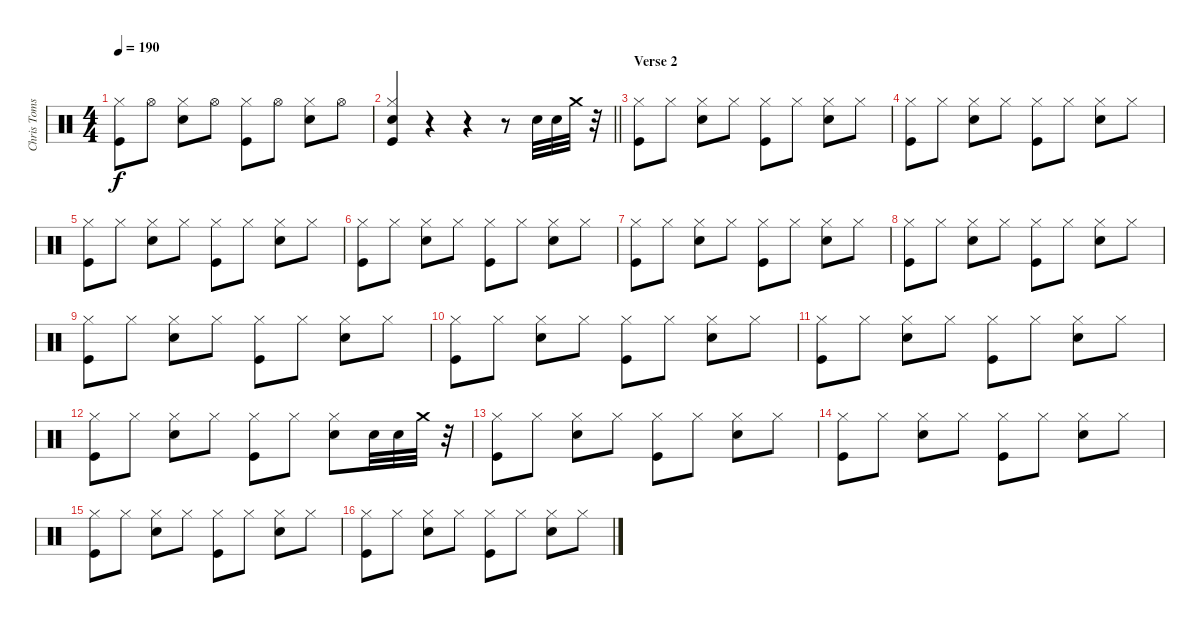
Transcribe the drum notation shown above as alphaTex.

\track ("Chris Tomson - Drums" "Chris Toms") {instrument percussion}
\staff {score}
\articulation defaults
\ts (4 4)
\tempo 190
\clef neutral
\ks c
("Kick (hit)" "Hi-Hat (closed)").8{dy f} "Hi-Hat (open)".8 ("Snare (hit) 2" "Hi-Hat (closed)").8 "Hi-Hat (open)".8 ("Kick (hit)" "Hi-Hat (closed)").8 "Hi-Hat (open)".8 ("Snare (hit) 2" "Hi-Hat (closed)").8 "Hi-Hat (open)".8 |
\barLineRight lightlight
("Kick (hit)" "Snare (hit) 2" "Hi-Hat (closed)").4 r.4 r.4 r.8 "Snare (hit) 2".32 "Snare (hit) 2".32 "Crash medium (hit)".32 r.32 |
\section ("" "Verse 2")
("Kick (hit)" "Hi-Hat (closed)").8 "Hi-Hat (closed)".8 ("Snare (hit) 2" "Hi-Hat (closed)").8 "Hi-Hat (closed)".8 ("Kick (hit)" "Hi-Hat (closed)").8 "Hi-Hat (closed)".8 ("Snare (hit) 2" "Hi-Hat (closed)").8 "Hi-Hat (closed)".8 |
("Kick (hit)" "Hi-Hat (closed)").8 "Hi-Hat (closed)".8 ("Snare (hit) 2" "Hi-Hat (closed)").8 "Hi-Hat (closed)".8 ("Kick (hit)" "Hi-Hat (closed)").8 "Hi-Hat (closed)".8 ("Snare (hit) 2" "Hi-Hat (closed)").8 "Hi-Hat (closed)".8 |
("Kick (hit)" "Hi-Hat (closed)").8 "Hi-Hat (closed)".8 ("Snare (hit) 2" "Hi-Hat (closed)").8 "Hi-Hat (closed)".8 ("Kick (hit)" "Hi-Hat (closed)").8 "Hi-Hat (closed)".8 ("Snare (hit) 2" "Hi-Hat (closed)").8 "Hi-Hat (closed)".8 |
("Kick (hit)" "Hi-Hat (closed)").8 "Hi-Hat (closed)".8 ("Snare (hit) 2" "Hi-Hat (closed)").8 "Hi-Hat (closed)".8 ("Kick (hit)" "Hi-Hat (closed)").8 "Hi-Hat (closed)".8 ("Snare (hit) 2" "Hi-Hat (closed)").8 "Hi-Hat (closed)".8 |
("Kick (hit)" "Hi-Hat (closed)").8 "Hi-Hat (closed)".8 ("Snare (hit) 2" "Hi-Hat (closed)").8 "Hi-Hat (closed)".8 ("Kick (hit)" "Hi-Hat (closed)").8 "Hi-Hat (closed)".8 ("Snare (hit) 2" "Hi-Hat (closed)").8 "Hi-Hat (closed)".8 |
("Kick (hit)" "Hi-Hat (closed)").8 "Hi-Hat (closed)".8 ("Snare (hit) 2" "Hi-Hat (closed)").8 "Hi-Hat (closed)".8 ("Kick (hit)" "Hi-Hat (closed)").8 "Hi-Hat (closed)".8 ("Snare (hit) 2" "Hi-Hat (closed)").8 "Hi-Hat (closed)".8 |
("Kick (hit)" "Hi-Hat (closed)").8 "Hi-Hat (closed)".8 ("Snare (hit) 2" "Hi-Hat (closed)").8 "Hi-Hat (closed)".8 ("Kick (hit)" "Hi-Hat (closed)").8 "Hi-Hat (closed)".8 ("Snare (hit) 2" "Hi-Hat (closed)").8 "Hi-Hat (closed)".8 |
("Kick (hit)" "Hi-Hat (closed)").8 "Hi-Hat (closed)".8 ("Snare (hit) 2" "Hi-Hat (closed)").8 "Hi-Hat (closed)".8 ("Kick (hit)" "Hi-Hat (closed)").8 "Hi-Hat (closed)".8 ("Snare (hit) 2" "Hi-Hat (closed)").8 "Hi-Hat (closed)".8 |
("Kick (hit)" "Hi-Hat (closed)").8 "Hi-Hat (closed)".8 ("Snare (hit) 2" "Hi-Hat (closed)").8 "Hi-Hat (closed)".8 ("Kick (hit)" "Hi-Hat (closed)").8 "Hi-Hat (closed)".8 ("Snare (hit) 2" "Hi-Hat (closed)").8 "Hi-Hat (closed)".8 |
("Kick (hit)" "Hi-Hat (closed)").8 "Hi-Hat (closed)".8 ("Snare (hit) 2" "Hi-Hat (closed)").8 "Hi-Hat (closed)".8 ("Kick (hit)" "Hi-Hat (closed)").8 "Hi-Hat (closed)".8 ("Snare (hit) 2" "Hi-Hat (closed)").8 "Snare (hit) 2".32 "Snare (hit) 2".32 "Crash medium (hit)".32 r.32 |
("Kick (hit)" "Hi-Hat (closed)").8 "Hi-Hat (closed)".8 ("Snare (hit) 2" "Hi-Hat (closed)").8 "Hi-Hat (closed)".8 ("Kick (hit)" "Hi-Hat (closed)").8 "Hi-Hat (closed)".8 ("Snare (hit) 2" "Hi-Hat (closed)").8 "Hi-Hat (closed)".8 |
("Kick (hit)" "Hi-Hat (closed)").8 "Hi-Hat (closed)".8 ("Snare (hit) 2" "Hi-Hat (closed)").8 "Hi-Hat (closed)".8 ("Kick (hit)" "Hi-Hat (closed)").8 "Hi-Hat (closed)".8 ("Snare (hit) 2" "Hi-Hat (closed)").8 "Hi-Hat (closed)".8 |
("Kick (hit)" "Hi-Hat (closed)").8 "Hi-Hat (closed)".8 ("Snare (hit) 2" "Hi-Hat (closed)").8 "Hi-Hat (closed)".8 ("Kick (hit)" "Hi-Hat (closed)").8 "Hi-Hat (closed)".8 ("Snare (hit) 2" "Hi-Hat (closed)").8 "Hi-Hat (closed)".8 |
("Kick (hit)" "Hi-Hat (closed)").8 "Hi-Hat (closed)".8 ("Snare (hit) 2" "Hi-Hat (closed)").8 "Hi-Hat (closed)".8 ("Kick (hit)" "Hi-Hat (closed)").8 "Hi-Hat (closed)".8 ("Snare (hit) 2" "Hi-Hat (closed)").8 "Hi-Hat (closed)".8
